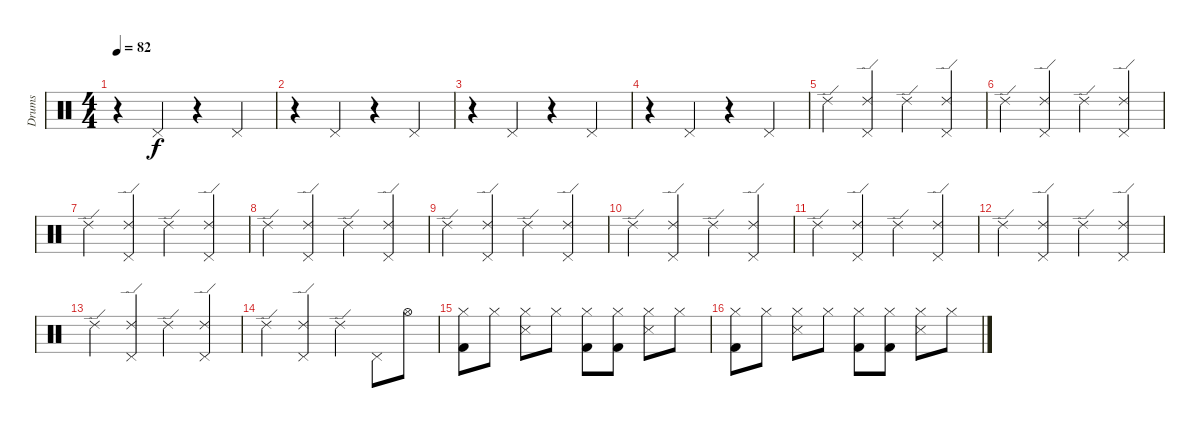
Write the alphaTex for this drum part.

\track ("Drums" "Drums") {instrument percussion}
\staff {score}
\articulation defaults
\ts (4 4)
\tempo 82
\clef neutral
\ks c
r.4{dy f} "Pedal Hi-Hat (hit)".4 r.4 "Pedal Hi-Hat (hit)".4 |
r.4 "Pedal Hi-Hat (hit)".4 r.4 "Pedal Hi-Hat (hit)".4 |
r.4 "Pedal Hi-Hat (hit)".4 r.4 "Pedal Hi-Hat (hit)".4 |
r.4 "Pedal Hi-Hat (hit)".4 r.4 "Pedal Hi-Hat (hit)".4 |
"Ride (edge) 2".4 ("Ride (edge) 2" "Pedal Hi-Hat (hit)").4 "Ride (edge) 2".4 ("Ride (edge) 2" "Pedal Hi-Hat (hit)").4 |
"Ride (edge) 2".4 ("Ride (edge) 2" "Pedal Hi-Hat (hit)").4 "Ride (edge) 2".4 ("Ride (edge) 2" "Pedal Hi-Hat (hit)").4 |
"Ride (edge) 2".4 ("Ride (edge) 2" "Pedal Hi-Hat (hit)").4 "Ride (edge) 2".4 ("Ride (edge) 2" "Pedal Hi-Hat (hit)").4 |
"Ride (edge) 2".4 ("Ride (edge) 2" "Pedal Hi-Hat (hit)").4 "Ride (edge) 2".4 ("Ride (edge) 2" "Pedal Hi-Hat (hit)").4 |
"Ride (edge) 2".4 ("Ride (edge) 2" "Pedal Hi-Hat (hit)").4 "Ride (edge) 2".4 ("Ride (edge) 2" "Pedal Hi-Hat (hit)").4 |
"Ride (edge) 2".4 ("Ride (edge) 2" "Pedal Hi-Hat (hit)").4 "Ride (edge) 2".4 ("Ride (edge) 2" "Pedal Hi-Hat (hit)").4 |
"Ride (edge) 2".4 ("Ride (edge) 2" "Pedal Hi-Hat (hit)").4 "Ride (edge) 2".4 ("Ride (edge) 2" "Pedal Hi-Hat (hit)").4 |
"Ride (edge) 2".4 ("Ride (edge) 2" "Pedal Hi-Hat (hit)").4 "Ride (edge) 2".4 ("Ride (edge) 2" "Pedal Hi-Hat (hit)").4 |
"Ride (edge) 2".4 ("Ride (edge) 2" "Pedal Hi-Hat (hit)").4 "Ride (edge) 2".4 ("Ride (edge) 2" "Pedal Hi-Hat (hit)").4 |
"Ride (edge) 2".4 ("Ride (edge) 2" "Pedal Hi-Hat (hit)").4 "Ride (edge) 2".4 "Pedal Hi-Hat (hit)".8 "Hi-Hat (open)".8 |
("Hi-Hat (closed)" "Kick (hit) 2").8 "Hi-Hat (closed)".8 ("Hi-Hat (closed)" "Snare (side stick) 3").8 "Hi-Hat (closed)".8 ("Hi-Hat (closed)" "Kick (hit) 2").8 ("Hi-Hat (closed)" "Kick (hit) 2").8 ("Hi-Hat (closed)" "Snare (side stick) 3").8 "Hi-Hat (closed)".8 |
("Hi-Hat (closed)" "Kick (hit) 2").8 "Hi-Hat (closed)".8 ("Hi-Hat (closed)" "Snare (side stick) 3").8 "Hi-Hat (closed)".8 ("Hi-Hat (closed)" "Kick (hit) 2").8 ("Hi-Hat (closed)" "Kick (hit) 2").8 ("Hi-Hat (closed)" "Snare (side stick) 3").8 "Hi-Hat (closed)".8
